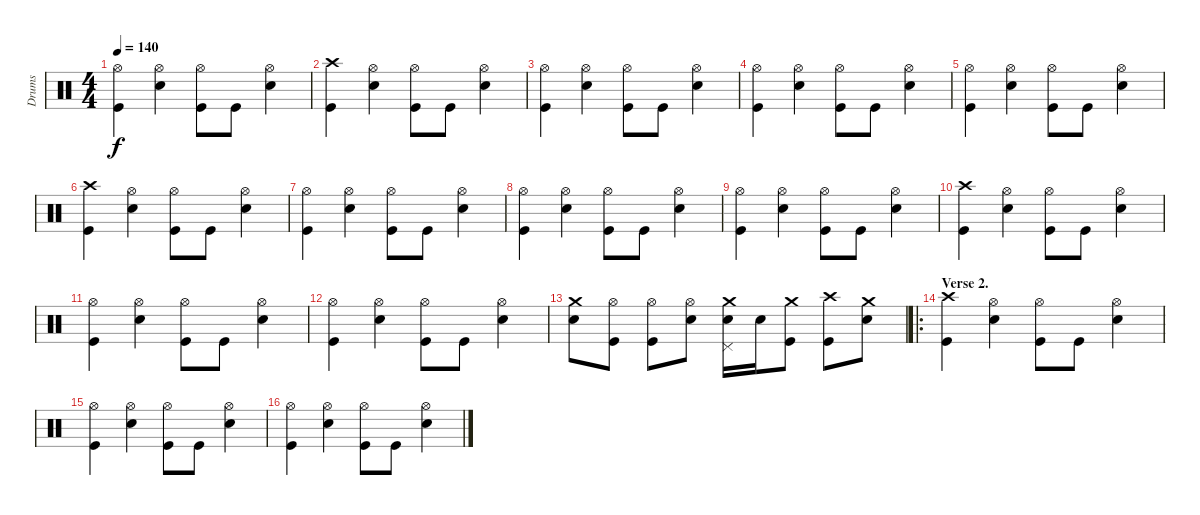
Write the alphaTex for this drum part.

\track ("Drums" "Drums") {instrument percussion}
\staff {score}
\articulation defaults
\ts (4 4)
\tempo 140
\clef neutral
\ks c
("Hi-Hat (open)" "Kick (hit)").4{dy f} ("Hi-Hat (open)" "Electric Snare (hit)").4 ("Hi-Hat (open)" "Kick (hit)").8 "Kick (hit)".8 ("Hi-Hat (open)" "Electric Snare (hit)").4 |
("Crash high (hit)" "Kick (hit)").4 ("Hi-Hat (open)" "Electric Snare (hit)").4 ("Hi-Hat (open)" "Kick (hit)").8 "Kick (hit)".8 ("Hi-Hat (open)" "Electric Snare (hit)").4 |
("Hi-Hat (open)" "Kick (hit)").4 ("Hi-Hat (open)" "Electric Snare (hit)").4 ("Hi-Hat (open)" "Kick (hit)").8 "Kick (hit)".8 ("Hi-Hat (open)" "Electric Snare (hit)").4 |
("Hi-Hat (open)" "Kick (hit)").4 ("Hi-Hat (open)" "Electric Snare (hit)").4 ("Hi-Hat (open)" "Kick (hit)").8 "Kick (hit)".8 ("Hi-Hat (open)" "Electric Snare (hit)").4 |
("Hi-Hat (open)" "Kick (hit)").4 ("Hi-Hat (open)" "Electric Snare (hit)").4 ("Hi-Hat (open)" "Kick (hit)").8 "Kick (hit)".8 ("Hi-Hat (open)" "Electric Snare (hit)").4 |
("Crash high (hit)" "Kick (hit)").4 ("Hi-Hat (open)" "Electric Snare (hit)").4 ("Hi-Hat (open)" "Kick (hit)").8 "Kick (hit)".8 ("Hi-Hat (open)" "Electric Snare (hit)").4 |
("Hi-Hat (open)" "Kick (hit)").4 ("Hi-Hat (open)" "Electric Snare (hit)").4 ("Hi-Hat (open)" "Kick (hit)").8 "Kick (hit)".8 ("Hi-Hat (open)" "Electric Snare (hit)").4 |
("Hi-Hat (open)" "Kick (hit)").4 ("Hi-Hat (open)" "Electric Snare (hit)").4 ("Hi-Hat (open)" "Kick (hit)").8 "Kick (hit)".8 ("Hi-Hat (open)" "Electric Snare (hit)").4 |
("Hi-Hat (open)" "Kick (hit)").4 ("Hi-Hat (open)" "Electric Snare (hit)").4 ("Hi-Hat (open)" "Kick (hit)").8 "Kick (hit)".8 ("Hi-Hat (open)" "Electric Snare (hit)").4 |
("Crash high (hit)" "Kick (hit)").4 ("Hi-Hat (open)" "Electric Snare (hit)").4 ("Hi-Hat (open)" "Kick (hit)").8 "Kick (hit)".8 ("Hi-Hat (open)" "Electric Snare (hit)").4 |
("Hi-Hat (open)" "Kick (hit)").4 ("Hi-Hat (open)" "Electric Snare (hit)").4 ("Hi-Hat (open)" "Kick (hit)").8 "Kick (hit)".8 ("Hi-Hat (open)" "Electric Snare (hit)").4 |
("Hi-Hat (open)" "Kick (hit)").4 ("Hi-Hat (open)" "Electric Snare (hit)").4 ("Hi-Hat (open)" "Kick (hit)").8 "Kick (hit)".8 ("Hi-Hat (open)" "Electric Snare (hit)").4 |
("Crash medium (hit)" "Electric Snare (hit)").8 ("Hi-Hat (open)" "Kick (hit)").8 ("Hi-Hat (open)" "Kick (hit)").8 ("Hi-Hat (open)" "Electric Snare (hit)").8 ("Crash medium (hit)" "Pedal Hi-Hat (hit)" "Electric Snare (hit)").16 "Electric Snare (hit)".16 ("Crash medium (hit)" "Kick (hit)").8 ("Crash high (hit)" "Kick (hit)").8 ("Crash medium (hit)" "Electric Snare (hit)").8 |
\ro
\section ("" "Verse 2.")
("Crash high (hit)" "Kick (hit)").4 ("Hi-Hat (open)" "Electric Snare (hit)").4 ("Hi-Hat (open)" "Kick (hit)").8 "Kick (hit)".8 ("Hi-Hat (open)" "Electric Snare (hit)").4 |
("Hi-Hat (open)" "Kick (hit)").4 ("Hi-Hat (open)" "Electric Snare (hit)").4 ("Hi-Hat (open)" "Kick (hit)").8 "Kick (hit)".8 ("Hi-Hat (open)" "Electric Snare (hit)").4 |
("Hi-Hat (open)" "Kick (hit)").4 ("Hi-Hat (open)" "Electric Snare (hit)").4 ("Hi-Hat (open)" "Kick (hit)").8 "Kick (hit)".8 ("Hi-Hat (open)" "Electric Snare (hit)").4
